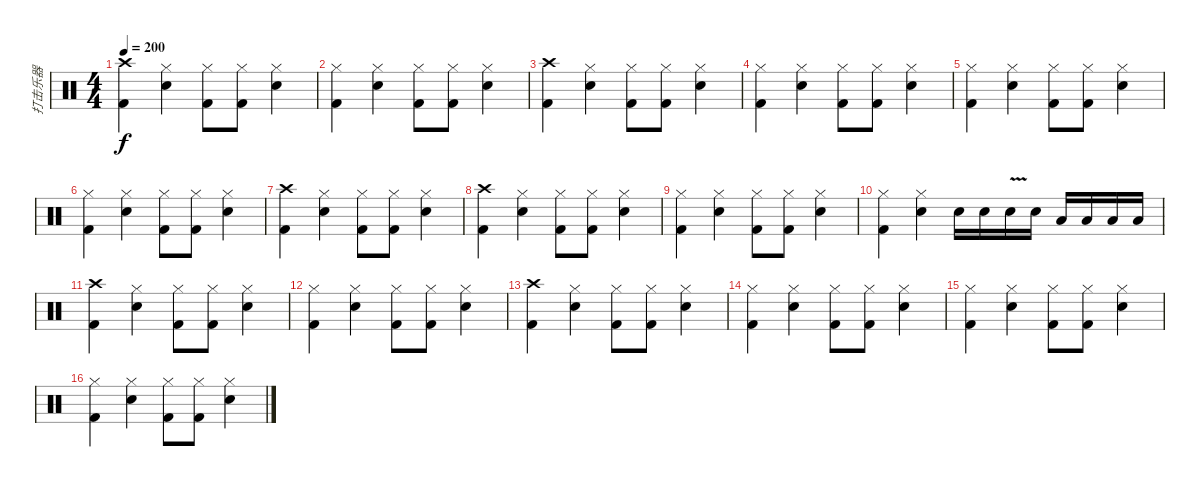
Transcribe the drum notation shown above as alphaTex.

\track ("打击乐器" "打击乐器") {instrument percussion}
\staff {score}
\articulation defaults
\ts (4 4)
\tempo 200
\clef neutral
\ks c
("Crash high (hit)" "Kick (hit) 2").4{dy f} ("Hi-Hat (closed)" "Snare (hit) 2").4 ("Hi-Hat (closed)" "Kick (hit) 2").8 ("Hi-Hat (closed)" "Kick (hit) 2").8 ("Hi-Hat (closed)" "Snare (hit) 2").4 |
("Hi-Hat (closed)" "Kick (hit) 2").4 ("Hi-Hat (closed)" "Snare (hit) 2").4 ("Hi-Hat (closed)" "Kick (hit) 2").8 ("Hi-Hat (closed)" "Kick (hit) 2").8 ("Hi-Hat (closed)" "Snare (hit) 2").4 |
("Crash high (hit)" "Kick (hit) 2").4 ("Hi-Hat (closed)" "Snare (hit) 2").4 ("Hi-Hat (closed)" "Kick (hit) 2").8 ("Hi-Hat (closed)" "Kick (hit) 2").8 ("Hi-Hat (closed)" "Snare (hit) 2").4 |
("Hi-Hat (closed)" "Kick (hit) 2").4 ("Hi-Hat (closed)" "Snare (hit) 2").4 ("Hi-Hat (closed)" "Kick (hit) 2").8 ("Hi-Hat (closed)" "Kick (hit) 2").8 ("Hi-Hat (closed)" "Snare (hit) 2").4 |
("Hi-Hat (closed)" "Kick (hit) 2").4 ("Hi-Hat (closed)" "Snare (hit) 2").4 ("Hi-Hat (closed)" "Kick (hit) 2").8 ("Hi-Hat (closed)" "Kick (hit) 2").8 ("Hi-Hat (closed)" "Snare (hit) 2").4 |
("Hi-Hat (closed)" "Kick (hit) 2").4 ("Hi-Hat (closed)" "Snare (hit) 2").4 ("Hi-Hat (closed)" "Kick (hit) 2").8 ("Hi-Hat (closed)" "Kick (hit) 2").8 ("Hi-Hat (closed)" "Snare (hit) 2").4 |
("Crash high (hit)" "Kick (hit) 2").4 ("Hi-Hat (closed)" "Snare (hit) 2").4 ("Hi-Hat (closed)" "Kick (hit) 2").8 ("Hi-Hat (closed)" "Kick (hit) 2").8 ("Hi-Hat (closed)" "Snare (hit) 2").4 |
("Crash high (hit)" "Kick (hit) 2").4 ("Hi-Hat (closed)" "Snare (hit) 2").4 ("Hi-Hat (closed)" "Kick (hit) 2").8 ("Hi-Hat (closed)" "Kick (hit) 2").8 ("Hi-Hat (closed)" "Snare (hit) 2").4 |
("Hi-Hat (closed)" "Kick (hit) 2").4 ("Hi-Hat (closed)" "Snare (hit) 2").4 ("Hi-Hat (closed)" "Kick (hit) 2").8 ("Hi-Hat (closed)" "Kick (hit) 2").8 ("Hi-Hat (closed)" "Snare (hit) 2").4 |
("Hi-Hat (closed)" "Kick (hit) 2").4 ("Hi-Hat (closed)" "Snare (hit) 2").4 "Snare (hit) 2".16 "Snare (hit) 2".16 "Snare (hit) 2"{v}.16 "Snare (hit) 2".16 "Low Floor Tom (hit)".16 "Low Floor Tom (hit)".16 "Low Tom (hit)".16 "Low Tom (hit)".16 |
("Crash high (hit)" "Kick (hit) 2").4 ("Hi-Hat (closed)" "Snare (hit) 2").4 ("Hi-Hat (closed)" "Kick (hit) 2").8 ("Hi-Hat (closed)" "Kick (hit) 2").8 ("Hi-Hat (closed)" "Snare (hit) 2").4 |
("Hi-Hat (closed)" "Kick (hit) 2").4 ("Hi-Hat (closed)" "Snare (hit) 2").4 ("Hi-Hat (closed)" "Kick (hit) 2").8 ("Hi-Hat (closed)" "Kick (hit) 2").8 ("Hi-Hat (closed)" "Snare (hit) 2").4 |
("Crash high (hit)" "Kick (hit) 2").4 ("Hi-Hat (closed)" "Snare (hit) 2").4 ("Hi-Hat (closed)" "Kick (hit) 2").8 ("Hi-Hat (closed)" "Kick (hit) 2").8 ("Hi-Hat (closed)" "Snare (hit) 2").4 |
("Hi-Hat (closed)" "Kick (hit) 2").4 ("Hi-Hat (closed)" "Snare (hit) 2").4 ("Hi-Hat (closed)" "Kick (hit) 2").8 ("Hi-Hat (closed)" "Kick (hit) 2").8 ("Hi-Hat (closed)" "Snare (hit) 2").4 |
("Hi-Hat (closed)" "Kick (hit) 2").4 ("Hi-Hat (closed)" "Snare (hit) 2").4 ("Hi-Hat (closed)" "Kick (hit) 2").8 ("Hi-Hat (closed)" "Kick (hit) 2").8 ("Hi-Hat (closed)" "Snare (hit) 2").4 |
("Hi-Hat (closed)" "Kick (hit) 2").4 ("Hi-Hat (closed)" "Snare (hit) 2").4 ("Hi-Hat (closed)" "Kick (hit) 2").8 ("Hi-Hat (closed)" "Kick (hit) 2").8 ("Hi-Hat (closed)" "Snare (hit) 2").4
